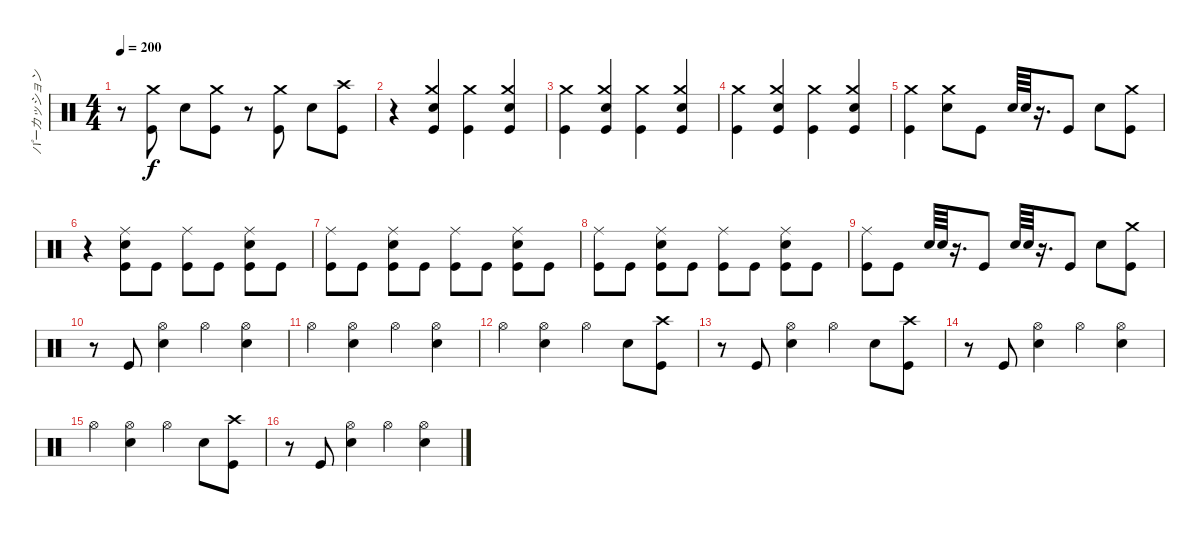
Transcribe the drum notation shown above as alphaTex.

\track ("パーカッション" "パーカッション") {instrument percussion}
\staff {score}
\articulation defaults
\ts (4 4)
\tempo 200
\clef neutral
\ks c
r.8{dy f} ("Kick (hit)" "Crash medium (hit)").8 "Snare (hit) 2".8 ("Kick (hit)" "Crash medium (hit)").8 r.8 ("Kick (hit)" "Crash medium (hit)").8 "Snare (hit) 2".8 ("Kick (hit)" "Crash high (hit)").8 |
r.4 ("Crash medium (hit)" "Kick (hit)" "Snare (hit) 2").4 ("Kick (hit)" "Crash medium (hit)").4 ("Crash medium (hit)" "Kick (hit)" "Snare (hit) 2").4 |
("Kick (hit)" "Crash medium (hit)").4 ("Crash medium (hit)" "Kick (hit)" "Snare (hit) 2").4 ("Kick (hit)" "Crash medium (hit)").4 ("Crash medium (hit)" "Kick (hit)" "Snare (hit) 2").4 |
("Kick (hit)" "Crash medium (hit)").4 ("Crash medium (hit)" "Kick (hit)" "Snare (hit) 2").4 ("Kick (hit)" "Crash medium (hit)").4 ("Crash medium (hit)" "Kick (hit)" "Snare (hit) 2").4 |
("Kick (hit)" "Crash medium (hit)").4 ("Crash medium (hit)" "Snare (hit) 2").8 "Kick (hit)".8 "Snare (hit) 2".64 "Snare (hit) 2".64 r.16{d} "Kick (hit)".8 "Snare (hit) 2".8 ("Crash medium (hit)" "Kick (hit)").8 |
r.4 ("Snare (hit) 2" "Ride (middle)" "Kick (hit)").8 "Kick (hit)".8 ("Kick (hit)" "Ride (middle)").8 "Kick (hit)".8 ("Kick (hit)" "Ride (middle)" "Snare (hit) 2").8 "Kick (hit)".8 |
("Kick (hit)" "Ride (middle)").8 "Kick (hit)".8 ("Kick (hit)" "Ride (middle)" "Snare (hit) 2").8 "Kick (hit)".8 ("Kick (hit)" "Ride (middle)").8 "Kick (hit)".8 ("Kick (hit)" "Ride (middle)" "Snare (hit) 2").8 "Kick (hit)".8 |
("Kick (hit)" "Ride (middle)").8 "Kick (hit)".8 ("Kick (hit)" "Ride (middle)" "Snare (hit) 2").8 "Kick (hit)".8 ("Kick (hit)" "Ride (middle)").8 "Kick (hit)".8 ("Kick (hit)" "Ride (middle)" "Snare (hit) 2").8 "Kick (hit)".8 |
("Ride (middle)" "Kick (hit)").8 "Kick (hit)".8 "Snare (hit) 2".64 "Snare (hit) 2".64 r.16{d} "Kick (hit)".8 "Snare (hit) 2".64 "Snare (hit) 2".64 r.16{d} "Kick (hit)".8 "Snare (hit) 2".8 ("Crash medium (hit)" "Kick (hit)").8 |
r.8 "Kick (hit)".8 ("Snare (hit) 2" "Hi-Hat (open)").4 "Hi-Hat (open)".4 ("Snare (hit) 2" "Hi-Hat (open)").4 |
"Hi-Hat (open)".4 ("Snare (hit) 2" "Hi-Hat (open)").4 "Hi-Hat (open)".4 ("Snare (hit) 2" "Hi-Hat (open)").4 |
"Hi-Hat (open)".4 ("Snare (hit) 2" "Hi-Hat (open)").4 "Hi-Hat (open)".4 "Snare (hit) 2".8 ("Kick (hit)" "Crash high (hit)").8 |
r.8 "Kick (hit)".8 ("Hi-Hat (open)" "Snare (hit) 2").4 "Hi-Hat (open)".4 "Snare (hit) 2".8 ("Kick (hit)" "Crash high (hit)").8 |
r.8 "Kick (hit)".8 ("Hi-Hat (open)" "Snare (hit) 2").4 "Hi-Hat (open)".4 ("Snare (hit) 2" "Hi-Hat (open)").4 |
"Hi-Hat (open)".4 ("Snare (hit) 2" "Hi-Hat (open)").4 "Hi-Hat (open)".4 "Snare (hit) 2".8 ("Kick (hit)" "Crash high (hit)").8 |
r.8 "Kick (hit)".8 ("Hi-Hat (open)" "Snare (hit) 2").4 "Hi-Hat (open)".4 ("Snare (hit) 2" "Hi-Hat (open)").4
